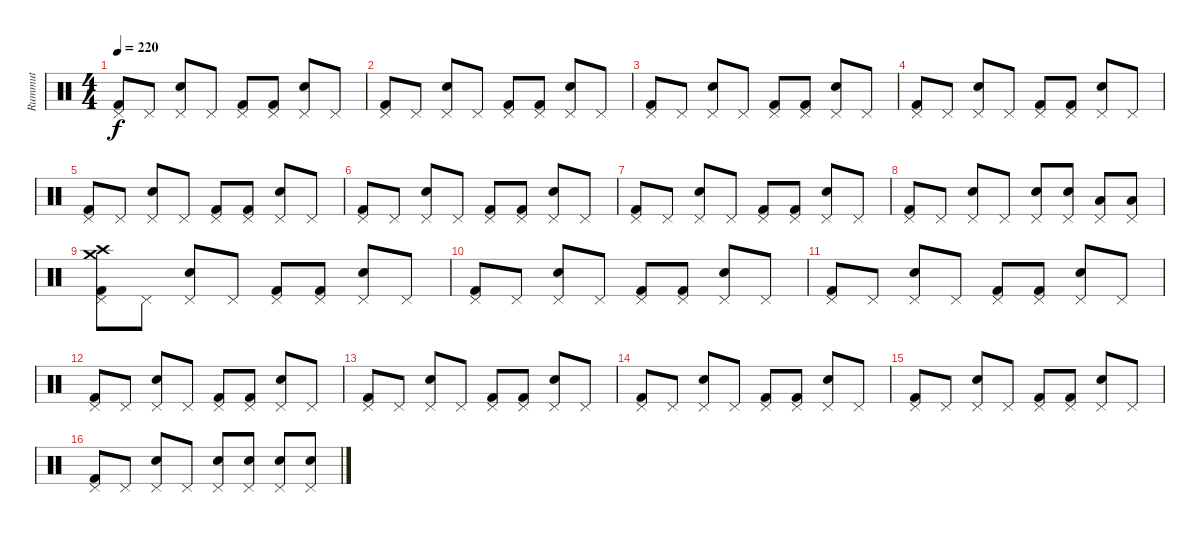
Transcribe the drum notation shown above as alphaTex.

\track ("Rummut" "Rummut") {instrument percussion}
\staff {score}
\articulation defaults
\ts (4 4)
\tempo 220
\clef neutral
\ks c
("Pedal Hi-Hat (hit)" "Kick (hit) 2").8{dy f} "Pedal Hi-Hat (hit)".8 ("Pedal Hi-Hat (hit)" "Snare (hit) 2").8 "Pedal Hi-Hat (hit)".8 ("Pedal Hi-Hat (hit)" "Kick (hit) 2").8 ("Pedal Hi-Hat (hit)" "Kick (hit) 2").8 ("Pedal Hi-Hat (hit)" "Snare (hit) 2").8 "Pedal Hi-Hat (hit)".8 |
("Pedal Hi-Hat (hit)" "Kick (hit) 2").8 "Pedal Hi-Hat (hit)".8 ("Pedal Hi-Hat (hit)" "Snare (hit) 2").8 "Pedal Hi-Hat (hit)".8 ("Pedal Hi-Hat (hit)" "Kick (hit) 2").8 ("Pedal Hi-Hat (hit)" "Kick (hit) 2").8 ("Pedal Hi-Hat (hit)" "Snare (hit) 2").8 "Pedal Hi-Hat (hit)".8 |
("Pedal Hi-Hat (hit)" "Kick (hit) 2").8 "Pedal Hi-Hat (hit)".8 ("Pedal Hi-Hat (hit)" "Snare (hit) 2").8 "Pedal Hi-Hat (hit)".8 ("Pedal Hi-Hat (hit)" "Kick (hit) 2").8 ("Pedal Hi-Hat (hit)" "Kick (hit) 2").8 ("Pedal Hi-Hat (hit)" "Snare (hit) 2").8 "Pedal Hi-Hat (hit)".8 |
("Pedal Hi-Hat (hit)" "Kick (hit) 2").8 "Pedal Hi-Hat (hit)".8 ("Pedal Hi-Hat (hit)" "Snare (hit) 2").8 "Pedal Hi-Hat (hit)".8 ("Pedal Hi-Hat (hit)" "Kick (hit) 2").8 ("Pedal Hi-Hat (hit)" "Kick (hit) 2").8 ("Pedal Hi-Hat (hit)" "Snare (hit) 2").8 "Pedal Hi-Hat (hit)".8 |
("Pedal Hi-Hat (hit)" "Kick (hit) 2").8 "Pedal Hi-Hat (hit)".8 ("Pedal Hi-Hat (hit)" "Snare (hit) 2").8 "Pedal Hi-Hat (hit)".8 ("Pedal Hi-Hat (hit)" "Kick (hit) 2").8 ("Pedal Hi-Hat (hit)" "Kick (hit) 2").8 ("Pedal Hi-Hat (hit)" "Snare (hit) 2").8 "Pedal Hi-Hat (hit)".8 |
("Pedal Hi-Hat (hit)" "Kick (hit) 2").8 "Pedal Hi-Hat (hit)".8 ("Pedal Hi-Hat (hit)" "Snare (hit) 2").8 "Pedal Hi-Hat (hit)".8 ("Pedal Hi-Hat (hit)" "Kick (hit) 2").8 ("Pedal Hi-Hat (hit)" "Kick (hit) 2").8 ("Pedal Hi-Hat (hit)" "Snare (hit) 2").8 "Pedal Hi-Hat (hit)".8 |
("Pedal Hi-Hat (hit)" "Kick (hit) 2").8 "Pedal Hi-Hat (hit)".8 ("Pedal Hi-Hat (hit)" "Snare (hit) 2").8 "Pedal Hi-Hat (hit)".8 ("Pedal Hi-Hat (hit)" "Kick (hit) 2").8 ("Pedal Hi-Hat (hit)" "Kick (hit) 2").8 ("Pedal Hi-Hat (hit)" "Snare (hit) 2").8 "Pedal Hi-Hat (hit)".8 |
("Pedal Hi-Hat (hit)" "Kick (hit) 2").8 "Pedal Hi-Hat (hit)".8 ("Pedal Hi-Hat (hit)" "Snare (hit) 2").8 "Pedal Hi-Hat (hit)".8 ("Pedal Hi-Hat (hit)" "Snare (hit) 2").8 ("Pedal Hi-Hat (hit)" "Snare (hit) 2").8 ("Pedal Hi-Hat (hit)" "Low Floor Tom (hit)").8 ("Pedal Hi-Hat (hit)" "Low Floor Tom (hit)").8 |
("Pedal Hi-Hat (hit)" "Crash high (hit)" "Kick (hit) 2" "Crash medium (hit)").8 "Pedal Hi-Hat (hit)".8 ("Pedal Hi-Hat (hit)" "Snare (hit) 2").8 "Pedal Hi-Hat (hit)".8 ("Pedal Hi-Hat (hit)" "Kick (hit) 2").8 ("Pedal Hi-Hat (hit)" "Kick (hit) 2").8 ("Pedal Hi-Hat (hit)" "Snare (hit) 2").8 "Pedal Hi-Hat (hit)".8 |
("Pedal Hi-Hat (hit)" "Kick (hit) 2").8 "Pedal Hi-Hat (hit)".8 ("Pedal Hi-Hat (hit)" "Snare (hit) 2").8 "Pedal Hi-Hat (hit)".8 ("Pedal Hi-Hat (hit)" "Kick (hit) 2").8 ("Pedal Hi-Hat (hit)" "Kick (hit) 2").8 ("Pedal Hi-Hat (hit)" "Snare (hit) 2").8 "Pedal Hi-Hat (hit)".8 |
("Pedal Hi-Hat (hit)" "Kick (hit) 2").8 "Pedal Hi-Hat (hit)".8 ("Pedal Hi-Hat (hit)" "Snare (hit) 2").8 "Pedal Hi-Hat (hit)".8 ("Pedal Hi-Hat (hit)" "Kick (hit) 2").8 ("Pedal Hi-Hat (hit)" "Kick (hit) 2").8 ("Pedal Hi-Hat (hit)" "Snare (hit) 2").8 "Pedal Hi-Hat (hit)".8 |
("Pedal Hi-Hat (hit)" "Kick (hit) 2").8 "Pedal Hi-Hat (hit)".8 ("Pedal Hi-Hat (hit)" "Snare (hit) 2").8 "Pedal Hi-Hat (hit)".8 ("Pedal Hi-Hat (hit)" "Kick (hit) 2").8 ("Pedal Hi-Hat (hit)" "Kick (hit) 2").8 ("Pedal Hi-Hat (hit)" "Snare (hit) 2").8 "Pedal Hi-Hat (hit)".8 |
("Pedal Hi-Hat (hit)" "Kick (hit) 2").8 "Pedal Hi-Hat (hit)".8 ("Pedal Hi-Hat (hit)" "Snare (hit) 2").8 "Pedal Hi-Hat (hit)".8 ("Pedal Hi-Hat (hit)" "Kick (hit) 2").8 ("Pedal Hi-Hat (hit)" "Kick (hit) 2").8 ("Pedal Hi-Hat (hit)" "Snare (hit) 2").8 "Pedal Hi-Hat (hit)".8 |
("Pedal Hi-Hat (hit)" "Kick (hit) 2").8 "Pedal Hi-Hat (hit)".8 ("Pedal Hi-Hat (hit)" "Snare (hit) 2").8 "Pedal Hi-Hat (hit)".8 ("Pedal Hi-Hat (hit)" "Kick (hit) 2").8 ("Pedal Hi-Hat (hit)" "Kick (hit) 2").8 ("Pedal Hi-Hat (hit)" "Snare (hit) 2").8 "Pedal Hi-Hat (hit)".8 |
("Pedal Hi-Hat (hit)" "Kick (hit) 2").8 "Pedal Hi-Hat (hit)".8 ("Pedal Hi-Hat (hit)" "Snare (hit) 2").8 "Pedal Hi-Hat (hit)".8 ("Pedal Hi-Hat (hit)" "Kick (hit) 2").8 ("Pedal Hi-Hat (hit)" "Kick (hit) 2").8 ("Pedal Hi-Hat (hit)" "Snare (hit) 2").8 "Pedal Hi-Hat (hit)".8 |
("Pedal Hi-Hat (hit)" "Kick (hit) 2").8 "Pedal Hi-Hat (hit)".8 ("Pedal Hi-Hat (hit)" "Snare (hit) 2").8 "Pedal Hi-Hat (hit)".8 ("Pedal Hi-Hat (hit)" "Snare (hit) 2").8 ("Pedal Hi-Hat (hit)" "Snare (hit) 2").8 ("Pedal Hi-Hat (hit)" "Snare (hit) 2").8 ("Pedal Hi-Hat (hit)" "Snare (hit) 2").8
